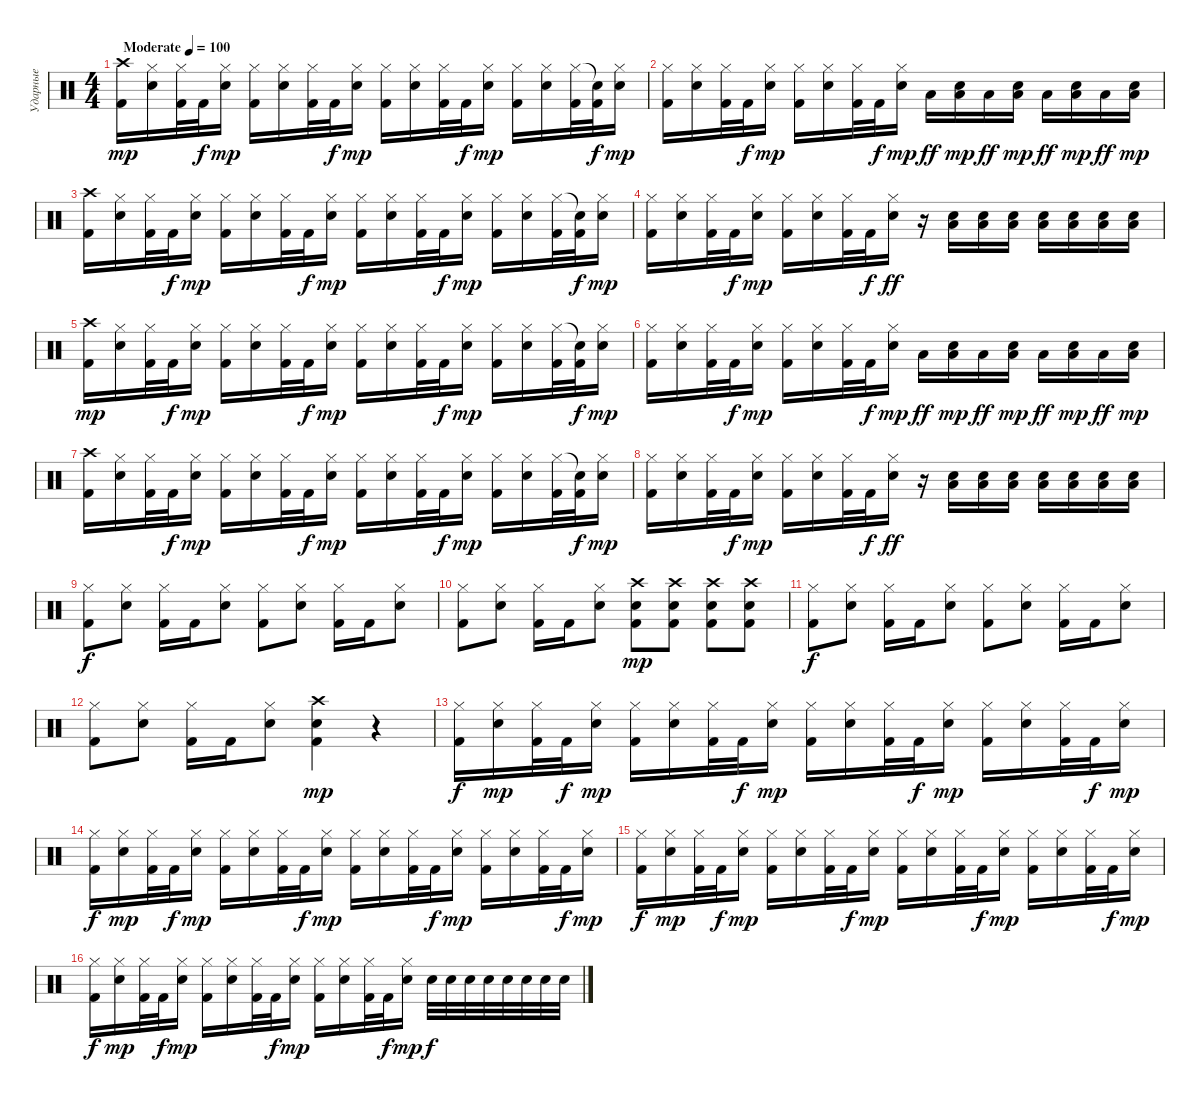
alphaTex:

\track ("Ударные" "Ударные") {instrument percussion}
\staff {score}
\articulation defaults
\ts (4 4)
\tempo (100 "Moderate")
\clef neutral
\ks c
("Crash high (hit)" "Kick (hit) 2").16{dy mp} ("Hi-Hat (closed)" "Electric Snare (hit)").16 ("Hi-Hat (closed)" "Kick (hit) 2").32 "Kick (hit) 2".32{dy f} ("Hi-Hat (closed)" "Electric Snare (hit)").16{dy mp} ("Hi-Hat (closed)" "Kick (hit) 2").16 ("Hi-Hat (closed)" "Electric Snare (hit)").16 ("Hi-Hat (closed)" "Kick (hit) 2").32 "Kick (hit) 2".32{dy f} ("Hi-Hat (closed)" "Electric Snare (hit)").16{dy mp} ("Hi-Hat (closed)" "Kick (hit) 2").16 ("Hi-Hat (closed)" "Electric Snare (hit)").16 ("Hi-Hat (closed)" "Kick (hit) 2").32 "Kick (hit) 2".32{dy f} ("Hi-Hat (closed)" "Electric Snare (hit)").16{dy mp} ("Hi-Hat (closed)" "Kick (hit) 2").16 ("Hi-Hat (closed)" "Electric Snare (hit)").16 ("Hi-Hat (closed)" "Kick (hit) 2").32 ("Snare (hit)"{t} "Kick (hit) 2").32{dy f} ("Hi-Hat (closed)" "Electric Snare (hit)").16{dy mp} |
("Hi-Hat (closed)" "Kick (hit) 2").16 ("Hi-Hat (closed)" "Electric Snare (hit)").16 ("Hi-Hat (closed)" "Kick (hit) 2").32 "Kick (hit) 2".32{dy f} ("Hi-Hat (closed)" "Electric Snare (hit)").16{dy mp} ("Hi-Hat (closed)" "Kick (hit) 2").16 ("Hi-Hat (closed)" "Electric Snare (hit)").16 ("Hi-Hat (closed)" "Kick (hit) 2").32 "Kick (hit) 2".32{dy f} ("Hi-Hat (closed)" "Electric Snare (hit)").16{dy mp} "Low Floor Tom (hit)".16{dy ff} ("Low Floor Tom (hit)" "Electric Snare (hit)").16{dy mp} "Low Floor Tom (hit)".16{dy ff} ("Low Floor Tom (hit)" "Electric Snare (hit)").16{dy mp} "Low Floor Tom (hit)".16{dy ff} ("Low Floor Tom (hit)" "Electric Snare (hit)").16{dy mp} "Low Floor Tom (hit)".16{dy ff} ("Low Floor Tom (hit)" "Electric Snare (hit)").16{dy mp} |
("Crash high (hit)" "Kick (hit) 2").16 ("Hi-Hat (closed)" "Electric Snare (hit)").16 ("Hi-Hat (closed)" "Kick (hit) 2").32 "Kick (hit) 2".32{dy f} ("Hi-Hat (closed)" "Electric Snare (hit)").16{dy mp} ("Hi-Hat (closed)" "Kick (hit) 2").16 ("Hi-Hat (closed)" "Electric Snare (hit)").16 ("Hi-Hat (closed)" "Kick (hit) 2").32 "Kick (hit) 2".32{dy f} ("Hi-Hat (closed)" "Electric Snare (hit)").16{dy mp} ("Hi-Hat (closed)" "Kick (hit) 2").16 ("Hi-Hat (closed)" "Electric Snare (hit)").16 ("Hi-Hat (closed)" "Kick (hit) 2").32 "Kick (hit) 2".32{dy f} ("Hi-Hat (closed)" "Electric Snare (hit)").16{dy mp} ("Hi-Hat (closed)" "Kick (hit) 2").16 ("Hi-Hat (closed)" "Electric Snare (hit)").16 ("Hi-Hat (closed)" "Kick (hit) 2").32 ("Snare (hit)"{t} "Kick (hit) 2").32{dy f} ("Hi-Hat (closed)" "Electric Snare (hit)").16{dy mp} |
("Hi-Hat (closed)" "Kick (hit) 2").16 ("Hi-Hat (closed)" "Electric Snare (hit)").16 ("Hi-Hat (closed)" "Kick (hit) 2").32 "Kick (hit) 2".32{dy f} ("Hi-Hat (closed)" "Electric Snare (hit)").16{dy mp} ("Hi-Hat (closed)" "Kick (hit) 2").16 ("Hi-Hat (closed)" "Electric Snare (hit)").16 ("Hi-Hat (closed)" "Kick (hit) 2").32 "Kick (hit) 2".32{dy f} ("Hi-Hat (closed)" "Electric Snare (hit)").16{dy ff} r.16 ("Low Floor Tom (hit)" "Electric Snare (hit)").16 ("Low Floor Tom (hit)" "Electric Snare (hit)").16 ("Low Floor Tom (hit)" "Electric Snare (hit)").16 ("Low Floor Tom (hit)" "Electric Snare (hit)").16 ("Low Floor Tom (hit)" "Electric Snare (hit)").16 ("Low Floor Tom (hit)" "Electric Snare (hit)").16 ("Low Floor Tom (hit)" "Electric Snare (hit)").16 |
("Crash high (hit)" "Kick (hit) 2").16{dy mp} ("Hi-Hat (closed)" "Electric Snare (hit)").16 ("Hi-Hat (closed)" "Kick (hit) 2").32 "Kick (hit) 2".32{dy f} ("Hi-Hat (closed)" "Electric Snare (hit)").16{dy mp} ("Hi-Hat (closed)" "Kick (hit) 2").16 ("Hi-Hat (closed)" "Electric Snare (hit)").16 ("Hi-Hat (closed)" "Kick (hit) 2").32 "Kick (hit) 2".32{dy f} ("Hi-Hat (closed)" "Electric Snare (hit)").16{dy mp} ("Hi-Hat (closed)" "Kick (hit) 2").16 ("Hi-Hat (closed)" "Electric Snare (hit)").16 ("Hi-Hat (closed)" "Kick (hit) 2").32 "Kick (hit) 2".32{dy f} ("Hi-Hat (closed)" "Electric Snare (hit)").16{dy mp} ("Hi-Hat (closed)" "Kick (hit) 2").16 ("Hi-Hat (closed)" "Electric Snare (hit)").16 ("Hi-Hat (closed)" "Kick (hit) 2").32 ("Snare (hit)"{t} "Kick (hit) 2").32{dy f} ("Hi-Hat (closed)" "Electric Snare (hit)").16{dy mp} |
("Hi-Hat (closed)" "Kick (hit) 2").16 ("Hi-Hat (closed)" "Electric Snare (hit)").16 ("Hi-Hat (closed)" "Kick (hit) 2").32 "Kick (hit) 2".32{dy f} ("Hi-Hat (closed)" "Electric Snare (hit)").16{dy mp} ("Hi-Hat (closed)" "Kick (hit) 2").16 ("Hi-Hat (closed)" "Electric Snare (hit)").16 ("Hi-Hat (closed)" "Kick (hit) 2").32 "Kick (hit) 2".32{dy f} ("Hi-Hat (closed)" "Electric Snare (hit)").16{dy mp} "Low Floor Tom (hit)".16{dy ff} ("Low Floor Tom (hit)" "Electric Snare (hit)").16{dy mp} "Low Floor Tom (hit)".16{dy ff} ("Low Floor Tom (hit)" "Electric Snare (hit)").16{dy mp} "Low Floor Tom (hit)".16{dy ff} ("Low Floor Tom (hit)" "Electric Snare (hit)").16{dy mp} "Low Floor Tom (hit)".16{dy ff} ("Low Floor Tom (hit)" "Electric Snare (hit)").16{dy mp} |
("Crash high (hit)" "Kick (hit) 2").16 ("Hi-Hat (closed)" "Electric Snare (hit)").16 ("Hi-Hat (closed)" "Kick (hit) 2").32 "Kick (hit) 2".32{dy f} ("Hi-Hat (closed)" "Electric Snare (hit)").16{dy mp} ("Hi-Hat (closed)" "Kick (hit) 2").16 ("Hi-Hat (closed)" "Electric Snare (hit)").16 ("Hi-Hat (closed)" "Kick (hit) 2").32 "Kick (hit) 2".32{dy f} ("Hi-Hat (closed)" "Electric Snare (hit)").16{dy mp} ("Hi-Hat (closed)" "Kick (hit) 2").16 ("Hi-Hat (closed)" "Electric Snare (hit)").16 ("Hi-Hat (closed)" "Kick (hit) 2").32 "Kick (hit) 2".32{dy f} ("Hi-Hat (closed)" "Electric Snare (hit)").16{dy mp} ("Hi-Hat (closed)" "Kick (hit) 2").16 ("Hi-Hat (closed)" "Electric Snare (hit)").16 ("Hi-Hat (closed)" "Kick (hit) 2").32 ("Snare (hit)"{t} "Kick (hit) 2").32{dy f} ("Hi-Hat (closed)" "Electric Snare (hit)").16{dy mp} |
("Hi-Hat (closed)" "Kick (hit) 2").16 ("Hi-Hat (closed)" "Electric Snare (hit)").16 ("Hi-Hat (closed)" "Kick (hit) 2").32 "Kick (hit) 2".32{dy f} ("Hi-Hat (closed)" "Electric Snare (hit)").16{dy mp} ("Hi-Hat (closed)" "Kick (hit) 2").16 ("Hi-Hat (closed)" "Electric Snare (hit)").16 ("Hi-Hat (closed)" "Kick (hit) 2").32 "Kick (hit) 2".32{dy f} ("Hi-Hat (closed)" "Electric Snare (hit)").16{dy ff} r.16 ("Low Floor Tom (hit)" "Electric Snare (hit)").16 ("Low Floor Tom (hit)" "Electric Snare (hit)").16 ("Low Floor Tom (hit)" "Electric Snare (hit)").16 ("Low Floor Tom (hit)" "Electric Snare (hit)").16 ("Low Floor Tom (hit)" "Electric Snare (hit)").16 ("Low Floor Tom (hit)" "Electric Snare (hit)").16 ("Low Floor Tom (hit)" "Electric Snare (hit)").16 |
("Hi-Hat (closed)" "Kick (hit) 2").8{dy f} ("Hi-Hat (closed)" "Electric Snare (hit)").8 ("Hi-Hat (closed)" "Kick (hit) 2").16 "Kick (hit) 2".16 ("Hi-Hat (closed)" "Electric Snare (hit)").8 ("Hi-Hat (closed)" "Kick (hit) 2").8 ("Hi-Hat (closed)" "Electric Snare (hit)").8 ("Hi-Hat (closed)" "Kick (hit) 2").16 "Kick (hit) 2".16 ("Hi-Hat (closed)" "Electric Snare (hit)").8 |
("Hi-Hat (closed)" "Kick (hit) 2").8 ("Hi-Hat (closed)" "Electric Snare (hit)").8 ("Hi-Hat (closed)" "Kick (hit) 2").16 "Kick (hit) 2".16 ("Hi-Hat (closed)" "Electric Snare (hit)").8 ("Crash high (hit)" "Electric Snare (hit)" "Kick (hit) 2").8{dy mp} ("Crash high (hit)" "Electric Snare (hit)" "Kick (hit) 2").8 ("Crash high (hit)" "Electric Snare (hit)" "Kick (hit) 2").8 ("Crash high (hit)" "Electric Snare (hit)" "Kick (hit) 2").8 |
("Hi-Hat (closed)" "Kick (hit) 2").8{dy f} ("Hi-Hat (closed)" "Electric Snare (hit)").8 ("Hi-Hat (closed)" "Kick (hit) 2").16 "Kick (hit) 2".16 ("Hi-Hat (closed)" "Electric Snare (hit)").8 ("Hi-Hat (closed)" "Kick (hit) 2").8 ("Hi-Hat (closed)" "Electric Snare (hit)").8 ("Hi-Hat (closed)" "Kick (hit) 2").16 "Kick (hit) 2".16 ("Hi-Hat (closed)" "Electric Snare (hit)").8 |
("Hi-Hat (closed)" "Kick (hit) 2").8 ("Hi-Hat (closed)" "Electric Snare (hit)").8 ("Hi-Hat (closed)" "Kick (hit) 2").16 "Kick (hit) 2".16 ("Hi-Hat (closed)" "Electric Snare (hit)").8 ("Crash high (hit)" "Electric Snare (hit)" "Kick (hit) 2").4{dy mp} r.4 |
("Hi-Hat (closed)" "Kick (hit) 2").16{dy f} ("Hi-Hat (closed)" "Electric Snare (hit)").16{dy mp} ("Hi-Hat (closed)" "Kick (hit) 2").32 "Kick (hit) 2".32{dy f} ("Hi-Hat (closed)" "Electric Snare (hit)").16{dy mp} ("Hi-Hat (closed)" "Kick (hit) 2").16 ("Hi-Hat (closed)" "Electric Snare (hit)").16 ("Hi-Hat (closed)" "Kick (hit) 2").32 "Kick (hit) 2".32{dy f} ("Hi-Hat (closed)" "Electric Snare (hit)").16{dy mp} ("Hi-Hat (closed)" "Kick (hit) 2").16 ("Hi-Hat (closed)" "Electric Snare (hit)").16 ("Hi-Hat (closed)" "Kick (hit) 2").32 "Kick (hit) 2".32{dy f} ("Hi-Hat (closed)" "Electric Snare (hit)").16{dy mp} ("Hi-Hat (closed)" "Kick (hit) 2").16 ("Hi-Hat (closed)" "Electric Snare (hit)").16 ("Hi-Hat (closed)" "Kick (hit) 2").32 "Kick (hit) 2".32{dy f} ("Hi-Hat (closed)" "Electric Snare (hit)").16{dy mp} |
("Hi-Hat (closed)" "Kick (hit) 2").16{dy f} ("Hi-Hat (closed)" "Electric Snare (hit)").16{dy mp} ("Hi-Hat (closed)" "Kick (hit) 2").32 "Kick (hit) 2".32{dy f} ("Hi-Hat (closed)" "Electric Snare (hit)").16{dy mp} ("Hi-Hat (closed)" "Kick (hit) 2").16 ("Hi-Hat (closed)" "Electric Snare (hit)").16 ("Hi-Hat (closed)" "Kick (hit) 2").32 "Kick (hit) 2".32{dy f} ("Hi-Hat (closed)" "Electric Snare (hit)").16{dy mp} ("Hi-Hat (closed)" "Kick (hit) 2").16 ("Hi-Hat (closed)" "Electric Snare (hit)").16 ("Hi-Hat (closed)" "Kick (hit) 2").32 "Kick (hit) 2".32{dy f} ("Hi-Hat (closed)" "Electric Snare (hit)").16{dy mp} ("Hi-Hat (closed)" "Kick (hit) 2").16 ("Hi-Hat (closed)" "Electric Snare (hit)").16 ("Hi-Hat (closed)" "Kick (hit) 2").32 "Kick (hit) 2".32{dy f} ("Hi-Hat (closed)" "Electric Snare (hit)").16{dy mp} |
("Hi-Hat (closed)" "Kick (hit) 2").16{dy f} ("Hi-Hat (closed)" "Electric Snare (hit)").16{dy mp} ("Hi-Hat (closed)" "Kick (hit) 2").32 "Kick (hit) 2".32{dy f} ("Hi-Hat (closed)" "Electric Snare (hit)").16{dy mp} ("Hi-Hat (closed)" "Kick (hit) 2").16 ("Hi-Hat (closed)" "Electric Snare (hit)").16 ("Hi-Hat (closed)" "Kick (hit) 2").32 "Kick (hit) 2".32{dy f} ("Hi-Hat (closed)" "Electric Snare (hit)").16{dy mp} ("Hi-Hat (closed)" "Kick (hit) 2").16 ("Hi-Hat (closed)" "Electric Snare (hit)").16 ("Hi-Hat (closed)" "Kick (hit) 2").32 "Kick (hit) 2".32{dy f} ("Hi-Hat (closed)" "Electric Snare (hit)").16{dy mp} ("Hi-Hat (closed)" "Kick (hit) 2").16 ("Hi-Hat (closed)" "Electric Snare (hit)").16 ("Hi-Hat (closed)" "Kick (hit) 2").32 "Kick (hit) 2".32{dy f} ("Hi-Hat (closed)" "Electric Snare (hit)").16{dy mp} |
("Hi-Hat (closed)" "Kick (hit) 2").16{dy f} ("Hi-Hat (closed)" "Electric Snare (hit)").16{dy mp} ("Hi-Hat (closed)" "Kick (hit) 2").32 "Kick (hit) 2".32{dy f} ("Hi-Hat (closed)" "Electric Snare (hit)").16{dy mp} ("Hi-Hat (closed)" "Kick (hit) 2").16 ("Hi-Hat (closed)" "Electric Snare (hit)").16 ("Hi-Hat (closed)" "Kick (hit) 2").32 "Kick (hit) 2".32{dy f} ("Hi-Hat (closed)" "Electric Snare (hit)").16{dy mp} ("Hi-Hat (closed)" "Kick (hit) 2").16 ("Hi-Hat (closed)" "Electric Snare (hit)").16 ("Hi-Hat (closed)" "Kick (hit) 2").32 "Kick (hit) 2".32{dy f} ("Hi-Hat (closed)" "Electric Snare (hit)").16{dy mp} "Electric Snare (hit)".32{dy f} "Electric Snare (hit)".32 "Electric Snare (hit)".32 "Electric Snare (hit)".32 "Electric Snare (hit)".32 "Electric Snare (hit)".32 "Electric Snare (hit)".32 "Electric Snare (hit)".32
